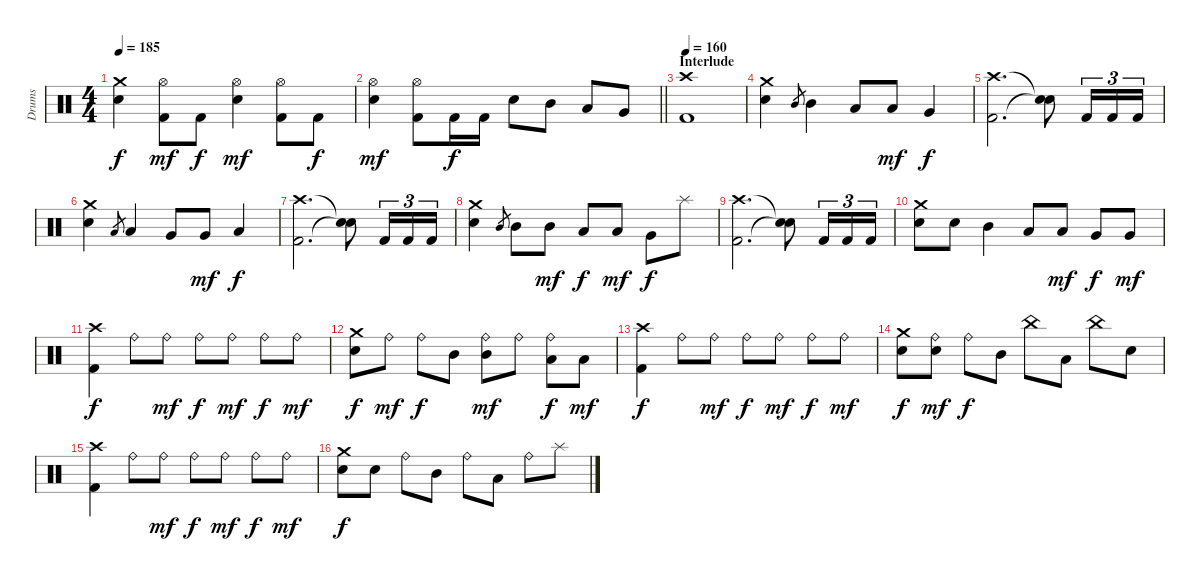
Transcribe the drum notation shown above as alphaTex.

\track ("Drums" "Drums") {instrument percussion}
\staff {score}
\articulation defaults
\ts (4 4)
\tempo 185
\clef neutral
\ks c
("Crash medium (hit)" "Electric Snare (hit)").4{dy f} ("Kick (hit) 2" "Hi-Hat (open)").8{dy mf} "Kick (hit) 2".8{dy f} ("Hi-Hat (open)" "Electric Snare (hit)").4{dy mf} ("Kick (hit) 2" "Hi-Hat (open)").8 "Kick (hit) 2".8{dy f} |
\barLineRight lightlight
("Hi-Hat (open)" "Electric Snare (hit)").4{dy mf} ("Kick (hit) 2" "Hi-Hat (open)").8 "Kick (hit) 2".16{dy f} "Kick (hit) 2".16 "Electric Snare (hit)".8 "Mid Tom (hit)".8 "Low Tom (hit)".8 "Very Low Tom (hit)".8 |
\section ("" "Interlude")
\tempo 160
("Kick (hit) 2" "Crash high (hit)").1 |
("Crash medium (hit)" "Electric Snare (hit)").4 "Mid Tom (hit)".8{gr} "Mid Tom (hit)".4 "Low Tom (hit)".8 "Low Tom (hit)".8{dy mf} "Very Low Tom (hit)".4{dy f} |
("Kick (hit) 2" "Crash high (hit)").2{d} ("Snare (hit)"{t} "Snare (hit)"{t}).8 "Kick (hit) 2".16{tu (3 2)} "Kick (hit) 2".16{tu (3 2)} "Kick (hit) 2".16{tu (3 2)} |
("Crash medium (hit)" "Electric Snare (hit)").4 "Low Tom (hit)".8{gr} "Low Tom (hit)".4 "Very Low Tom (hit)".8 "Very Low Tom (hit)".8{dy mf} "Low Floor Tom (hit)".4{dy f} |
("Kick (hit) 2" "Crash high (hit)").2{d} ("Snare (hit)"{t} "Snare (hit)"{t}).8 "Kick (hit) 2".16{tu (3 2)} "Kick (hit) 2".16{tu (3 2)} "Kick (hit) 2".16{tu (3 2)} |
("Crash medium (hit)" "Electric Snare (hit)").4 "Mid Tom (hit)".8{gr} "Mid Tom (hit)".8 "Mid Tom (hit)".8{dy mf} "Low Tom (hit)".8{dy f} "Low Tom (hit)".8{dy mf} "Very Low Tom (hit)".8{dy f} "Splash (hit)".8 |
("Kick (hit) 2" "Crash high (hit)").2{d} ("Snare (hit)"{t} "Snare (hit)"{t}).8 "Kick (hit) 2".16{tu (3 2)} "Kick (hit) 2".16{tu (3 2)} "Kick (hit) 2".16{tu (3 2)} |
("Crash medium (hit)" "Electric Snare (hit)").8 "Electric Snare (hit)".8 "Mid Tom (hit)".4 "Low Tom (hit)".8 "Low Tom (hit)".8{dy mf} "Very Low Tom (hit)".8{dy f} "Very Low Tom (hit)".8{dy mf} |
("Kick (hit) 2" "Crash high (hit)").4{dy f} "Ride (bell)".8 "Ride (bell)".8{dy mf} "Ride (bell)".8{dy f} "Ride (bell)".8{dy mf} "Ride (bell)".8{dy f} "Ride (bell)".8{dy mf} |
("Crash medium (hit)" "Electric Snare (hit)").8{dy f} "Ride (bell)".8{dy mf} "Ride (bell)".8{dy f} "Mid Tom (hit)".8 ("Ride (bell)" "Mid Tom (hit)").8{dy mf} "Ride (bell)".8 ("Ride (bell)" "Low Tom (hit)").8{dy f} "Low Tom (hit)".8{dy mf} |
("Kick (hit) 2" "Crash high (hit)").4{dy f} "Ride (bell)".8 "Ride (bell)".8{dy mf} "Ride (bell)".8{dy f} "Ride (bell)".8{dy mf} "Ride (bell)".8{dy f} "Ride (bell)".8{dy mf} |
("Crash medium (hit)" "Electric Snare (hit)").8{dy f} ("Ride (bell)" "Electric Snare (hit)").8{dy mf} "Ride (bell)".8{dy f} "Mid Tom (hit)".8 "China (hit)".8 "Low Tom (hit)".8 "China (hit)".8 "Electric Snare (hit)".8 |
("Kick (hit) 2" "Crash high (hit)").4 "Ride (bell)".8 "Ride (bell)".8{dy mf} "Ride (bell)".8{dy f} "Ride (bell)".8{dy mf} "Ride (bell)".8{dy f} "Ride (bell)".8{dy mf} |
("Crash medium (hit)" "Electric Snare (hit)").8{dy f} "Electric Snare (hit)".8 "Ride (bell)".8 "Mid Tom (hit)".8 "Ride (bell)".8 "Low Tom (hit)".8 "Ride (bell)".8 "Splash (hit)".8
